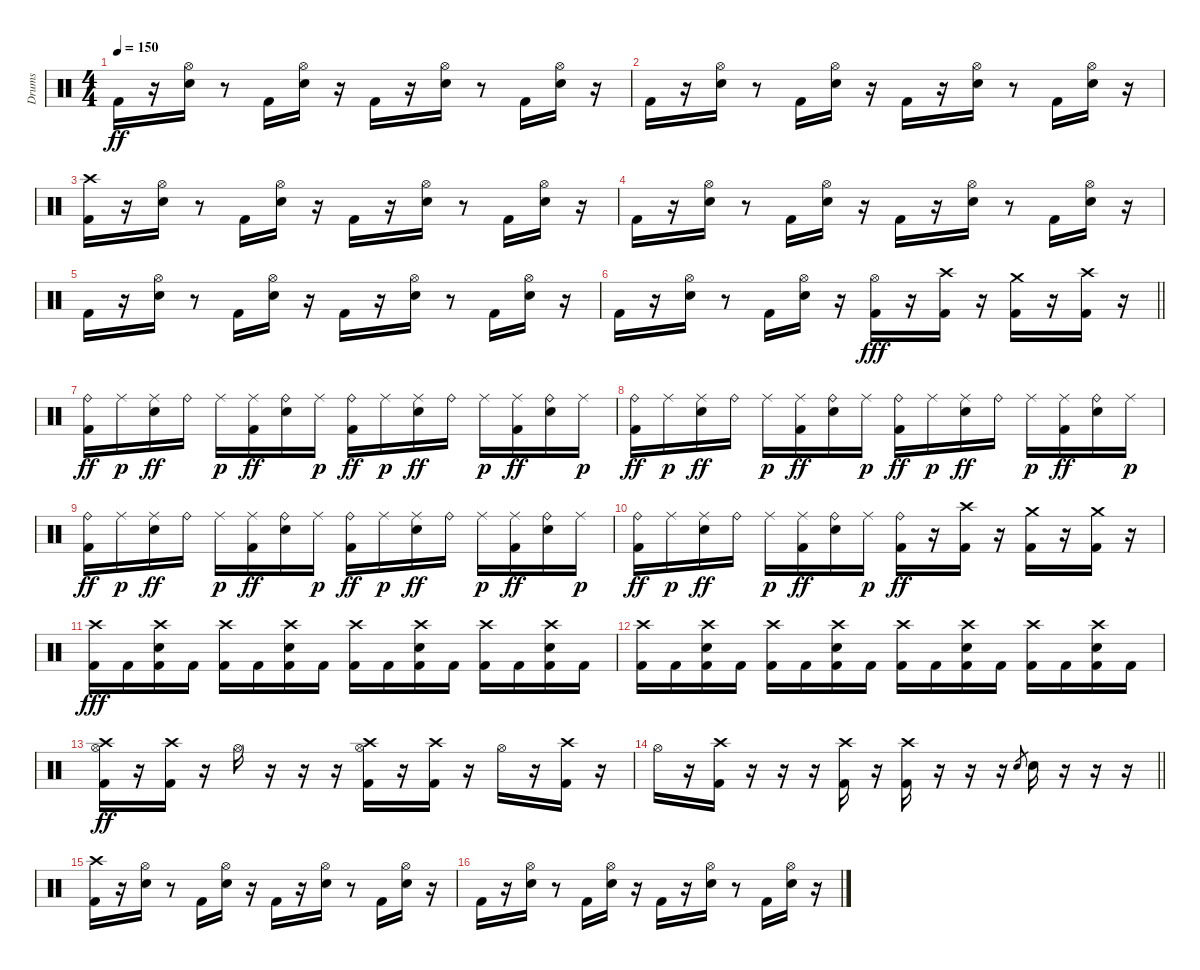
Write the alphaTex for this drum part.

\track ("Drums" "Drums") {instrument percussion}
\staff {score}
\articulation defaults
\ts (4 4)
\tempo 150
\clef neutral
\ks c "Kick (hit) 2".16{dy ff}
r.16 ("Hi-Hat (open)" "Snare (hit) 2").16 r.8 "Kick (hit) 2".16 ("Hi-Hat (open)" "Snare (hit) 2").16 r.16 "Kick (hit) 2".16 r.16 ("Hi-Hat (open)" "Snare (hit) 2").16 r.8 "Kick (hit) 2".16 ("Hi-Hat (open)" "Snare (hit) 2").16 r.16 |
"Kick (hit) 2".16 r.16 ("Hi-Hat (open)" "Snare (hit) 2").16 r.8 "Kick (hit) 2".16 ("Hi-Hat (open)" "Snare (hit) 2").16 r.16 "Kick (hit) 2".16 r.16 ("Hi-Hat (open)" "Snare (hit) 2").16 r.8 "Kick (hit) 2".16 ("Hi-Hat (open)" "Snare (hit) 2").16 r.16 |
("Crash high (hit)" "Kick (hit) 2").16 r.16 ("Hi-Hat (open)" "Snare (hit) 2").16 r.8 "Kick (hit) 2".16 ("Hi-Hat (open)" "Snare (hit) 2").16 r.16 "Kick (hit) 2".16 r.16 ("Hi-Hat (open)" "Snare (hit) 2").16 r.8 "Kick (hit) 2".16 ("Hi-Hat (open)" "Snare (hit) 2").16 r.16 |
"Kick (hit) 2".16 r.16 ("Hi-Hat (open)" "Snare (hit) 2").16 r.8 "Kick (hit) 2".16 ("Hi-Hat (open)" "Snare (hit) 2").16 r.16 "Kick (hit) 2".16 r.16 ("Hi-Hat (open)" "Snare (hit) 2").16 r.8 "Kick (hit) 2".16 ("Hi-Hat (open)" "Snare (hit) 2").16 r.16 |
"Kick (hit) 2".16 r.16 ("Hi-Hat (open)" "Snare (hit) 2").16 r.8 "Kick (hit) 2".16 ("Hi-Hat (open)" "Snare (hit) 2").16 r.16 "Kick (hit) 2".16 r.16 ("Hi-Hat (open)" "Snare (hit) 2").16 r.8 "Kick (hit) 2".16 ("Hi-Hat (open)" "Snare (hit) 2").16 r.16 |
\barLineRight lightlight "Kick (hit) 2".16
r.16 ("Hi-Hat (open)" "Snare (hit) 2").16 r.8 "Kick (hit) 2".16 ("Hi-Hat (open)" "Snare (hit) 2").16 r.16 ("Hi-Hat (open)" "Kick (hit) 2").16{dy fff} r.16 ("Crash high (hit)" "Kick (hit) 2").16 r.16 ("Crash medium (hit)" "Kick (hit) 2").16 r.16 ("Crash high (hit)" "Kick (hit) 2").16 r.16 |
("Ride (bell)" "Kick (hit) 2").16{dy ff} "Ride (middle)".16{dy p} ("Ride (middle)" "Snare (hit) 2").16{dy ff} "Ride (bell)".16 "Ride (middle)".16{dy p} ("Ride (middle)" "Kick (hit) 2").16{dy ff} ("Ride (bell)" "Snare (hit) 2").16 "Ride (middle)".16{dy p} ("Ride (bell)" "Kick (hit) 2").16{dy ff} "Ride (middle)".16{dy p} ("Ride (middle)" "Snare (hit) 2").16{dy ff} "Ride (bell)".16 "Ride (middle)".16{dy p} ("Ride (middle)" "Kick (hit) 2").16{dy ff} ("Ride (bell)" "Snare (hit) 2").16 "Ride (middle)".16{dy p} |
("Ride (bell)" "Kick (hit) 2").16{dy ff} "Ride (middle)".16{dy p} ("Ride (middle)" "Snare (hit) 2").16{dy ff} "Ride (bell)".16 "Ride (middle)".16{dy p} ("Ride (middle)" "Kick (hit) 2").16{dy ff} ("Ride (bell)" "Snare (hit) 2").16 "Ride (middle)".16{dy p} ("Ride (bell)" "Kick (hit) 2").16{dy ff} "Ride (middle)".16{dy p} ("Ride (middle)" "Snare (hit) 2").16{dy ff} "Ride (bell)".16 "Ride (middle)".16{dy p} ("Ride (middle)" "Kick (hit) 2").16{dy ff} ("Ride (bell)" "Snare (hit) 2").16 "Ride (middle)".16{dy p} |
("Ride (bell)" "Kick (hit) 2").16{dy ff} "Ride (middle)".16{dy p} ("Ride (middle)" "Snare (hit) 2").16{dy ff} "Ride (bell)".16 "Ride (middle)".16{dy p} ("Ride (middle)" "Kick (hit) 2").16{dy ff} ("Ride (bell)" "Snare (hit) 2").16 "Ride (middle)".16{dy p} ("Ride (bell)" "Kick (hit) 2").16{dy ff} "Ride (middle)".16{dy p} ("Ride (middle)" "Snare (hit) 2").16{dy ff} "Ride (bell)".16 "Ride (middle)".16{dy p} ("Ride (middle)" "Kick (hit) 2").16{dy ff} ("Ride (bell)" "Snare (hit) 2").16 "Ride (middle)".16{dy p} |
("Ride (bell)" "Kick (hit) 2").16{dy ff} "Ride (middle)".16{dy p} ("Ride (middle)" "Snare (hit) 2").16{dy ff} "Ride (bell)".16 "Ride (middle)".16{dy p} ("Ride (middle)" "Kick (hit) 2").16{dy ff} ("Ride (bell)" "Snare (hit) 2").16 "Ride (middle)".16{dy p} ("Ride (bell)" "Kick (hit) 2").16{dy ff} r.16 ("Crash high (hit)" "Kick (hit) 2").16 r.16 ("Crash medium (hit)" "Kick (hit) 2").16 r.16 ("Crash medium (hit)" "Kick (hit) 2").16 r.16 |
("Crash high (hit)" "Kick (hit) 2").16{dy fff} "Kick (hit) 2".16 ("Crash high (hit)" "Electric Snare (hit)" "Kick (hit) 2").16 "Kick (hit) 2".16 ("Crash high (hit)" "Kick (hit) 2").16 "Kick (hit) 2".16 ("Crash high (hit)" "Electric Snare (hit)" "Kick (hit) 2").16 "Kick (hit) 2".16 ("Crash high (hit)" "Kick (hit) 2").16 "Kick (hit) 2".16 ("Crash high (hit)" "Electric Snare (hit)" "Kick (hit) 2").16 "Kick (hit) 2".16 ("Crash high (hit)" "Kick (hit) 2").16 "Kick (hit) 2".16 ("Crash high (hit)" "Electric Snare (hit)" "Kick (hit) 2").16 "Kick (hit) 2".16 |
("Crash high (hit)" "Kick (hit) 2").16 "Kick (hit) 2".16 ("Crash high (hit)" "Electric Snare (hit)" "Kick (hit) 2").16 "Kick (hit) 2".16 ("Crash high (hit)" "Kick (hit) 2").16 "Kick (hit) 2".16 ("Crash high (hit)" "Electric Snare (hit)" "Kick (hit) 2").16 "Kick (hit) 2".16 ("Crash high (hit)" "Kick (hit) 2").16 "Kick (hit) 2".16 ("Crash high (hit)" "Electric Snare (hit)" "Kick (hit) 2").16 "Kick (hit) 2".16 ("Crash high (hit)" "Kick (hit) 2").16 "Kick (hit) 2".16 ("Crash high (hit)" "Electric Snare (hit)" "Kick (hit) 2").16 "Kick (hit) 2".16 |
("Crash high (hit)" "Hi-Hat (open)" "Kick (hit) 2").16{dy ff} r.16 ("Crash high (hit)" "Kick (hit) 2").16 r.16 "Hi-Hat (open)".16 r.16 r.16 r.16 ("Crash high (hit)" "Hi-Hat (open)" "Kick (hit) 2").16 r.16 ("Crash high (hit)" "Kick (hit) 2").16 r.16 "Hi-Hat (open)".16 r.16 ("Crash high (hit)" "Kick (hit) 2").16 r.16 |
\barLineRight lightlight "Hi-Hat (open)".16
r.16 ("Crash high (hit)" "Kick (hit) 2").16 r.16 r.16 r.16 ("Crash high (hit)" "Kick (hit) 2").16 r.16 ("Crash high (hit)" "Kick (hit) 2").16 r.16 r.16 r.16 "Snare (hit) 2".8{gr} "Snare (hit) 2".16 r.16 r.16 r.16 |
("Crash high (hit)" "Kick (hit) 2").16 r.16 ("Hi-Hat (open)" "Snare (hit) 2").16 r.8 "Kick (hit) 2".16 ("Hi-Hat (open)" "Snare (hit) 2").16 r.16 "Kick (hit) 2".16 r.16 ("Hi-Hat (open)" "Snare (hit) 2").16 r.8 "Kick (hit) 2".16 ("Hi-Hat (open)" "Snare (hit) 2").16 r.16 |
"Kick (hit) 2".16 r.16 ("Hi-Hat (open)" "Snare (hit) 2").16 r.8 "Kick (hit) 2".16 ("Hi-Hat (open)" "Snare (hit) 2").16 r.16 "Kick (hit) 2".16 r.16 ("Hi-Hat (open)" "Snare (hit) 2").16 r.8 "Kick (hit) 2".16 ("Hi-Hat (open)" "Snare (hit) 2").16 r.16
